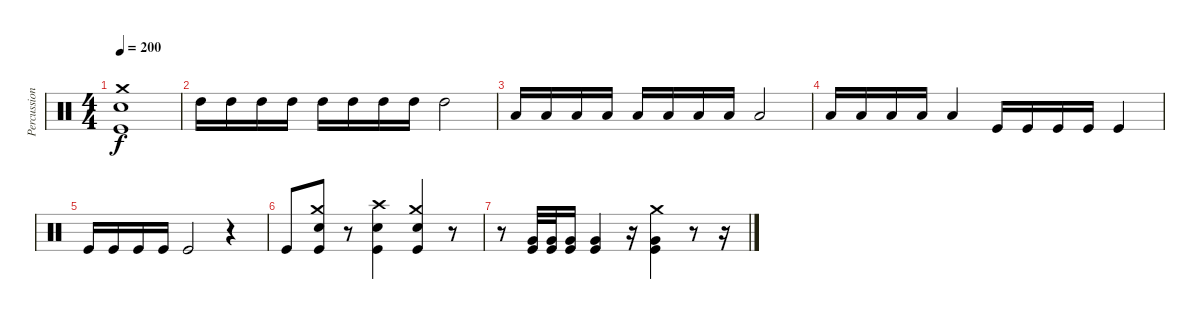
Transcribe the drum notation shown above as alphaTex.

\track ("Percussion" "Percussion") {instrument percussion}
\staff {score}
\articulation defaults
\ts (4 4)
\tempo 200
\clef neutral
\ks c
("Snare (hit) 2" "Crash medium (hit)" "Kick (hit)").1{dy f} |
"High Tom (hit)".16 "High Tom (hit)".16 "High Tom (hit)".16 "High Tom (hit)".16 "High Tom (hit)".16 "High Tom (hit)".16 "High Tom (hit)".16 "High Tom (hit)".16 "High Tom (hit)".2 |
"Low Tom (hit)".16 "Low Tom (hit)".16 "Low Tom (hit)".16 "Low Tom (hit)".16 "Low Tom (hit)".16 "Low Tom (hit)".16 "Low Tom (hit)".16 "Low Tom (hit)".16 "Low Tom (hit)".2 |
"Low Floor Tom (hit)".16 "Low Floor Tom (hit)".16 "Low Floor Tom (hit)".16 "Low Floor Tom (hit)".16 "Low Floor Tom (hit)".4 "Kick (hit)".16 "Kick (hit)".16 "Kick (hit)".16 "Kick (hit)".16 "Kick (hit)".4 |
"Kick (hit)".16 "Kick (hit)".16 "Kick (hit)".16 "Kick (hit)".16 "Kick (hit)".2 r.4 |
"Kick (hit)".8 ("Snare (hit) 2" "Crash medium (hit)" "Kick (hit)").8 r.8 ("Snare (hit) 2" "Crash high (hit)" "Kick (hit)").4 ("Snare (hit) 2" "Crash medium (hit)" "Kick (hit)").4 r.8 |
r.8 ("Kick (hit)" "Very Low Tom (hit)").32 ("Kick (hit)" "Very Low Tom (hit)").32 ("Kick (hit)" "Very Low Tom (hit)").16 ("Kick (hit)" "Very Low Tom (hit)").4 r.16 ("Kick (hit)" "Very Low Tom (hit)" "Crash medium (hit)").4 r.8 r.16
